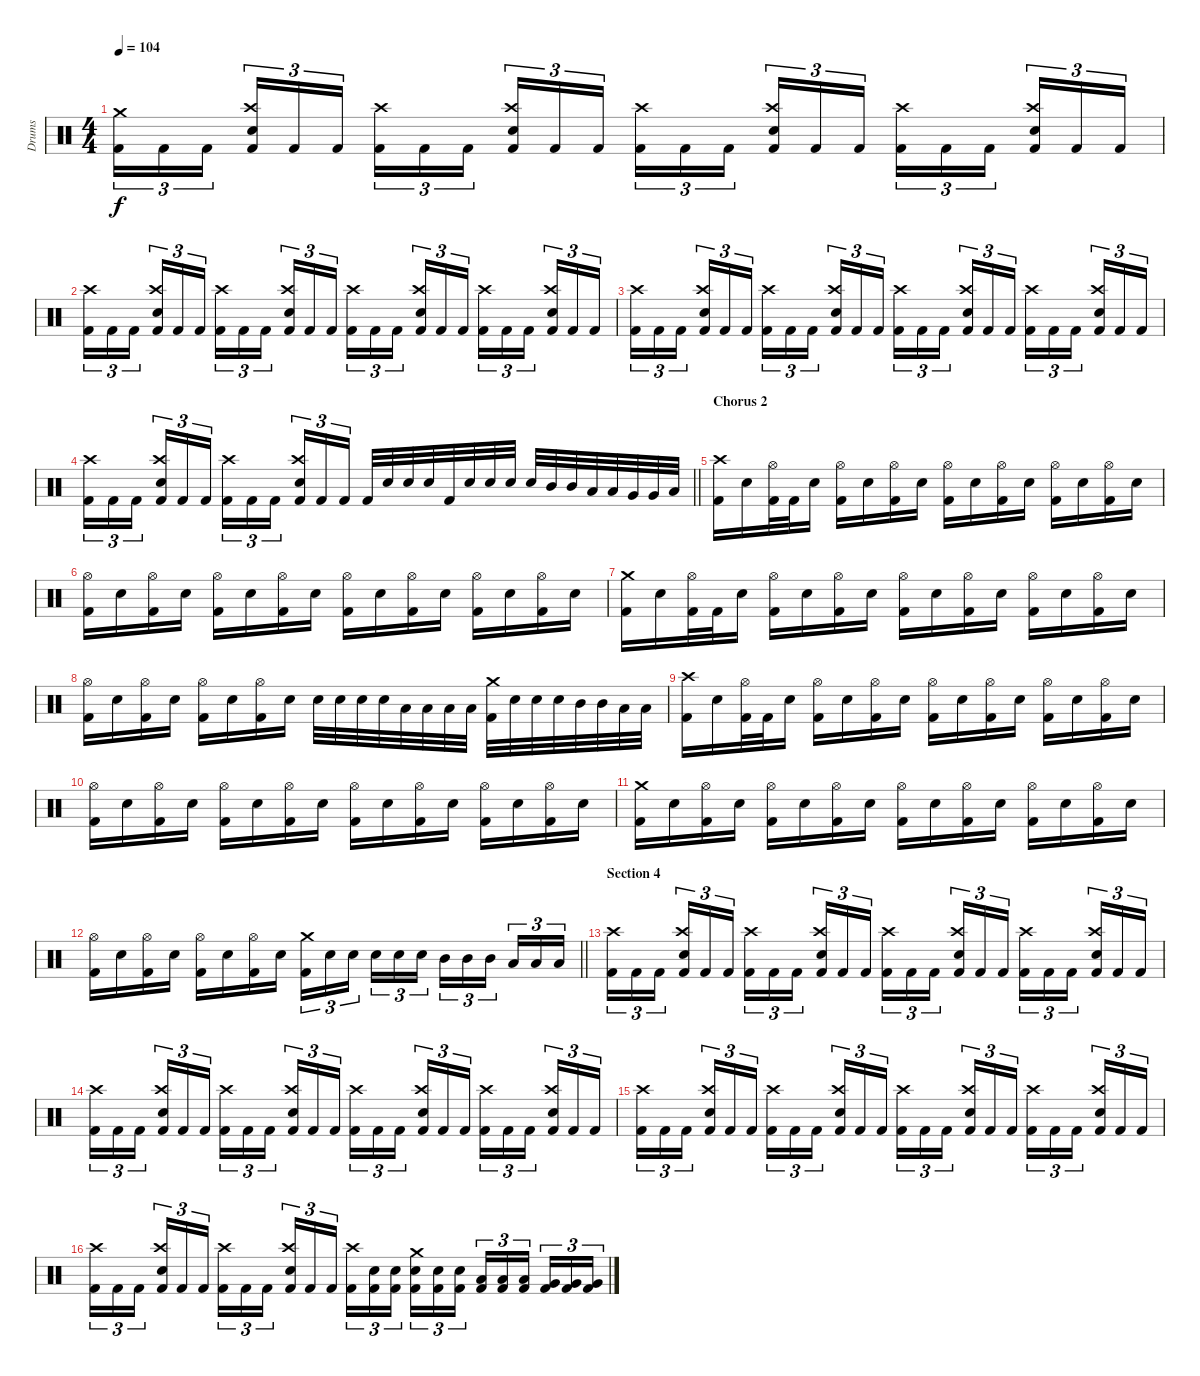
\track ("Drums" "Drums") {instrument percussion}
\staff {score}
\articulation defaults
\ts (4 4)
\tempo 104
\clef neutral
\ks c
("Crash medium (hit)" "Kick (hit) 2").16{tu (3 2) dy f} "Kick (hit) 2".16{tu (3 2)} "Kick (hit) 2".16{tu (3 2) beam splitsecondary} ("Crash high (hit)" "Electric Snare (hit)" "Kick (hit) 2").16{tu (3 2)} "Kick (hit) 2".16{tu (3 2)} "Kick (hit) 2".16{tu (3 2)} ("Crash high (hit)" "Kick (hit) 2").16{tu (3 2)} "Kick (hit) 2".16{tu (3 2)} "Kick (hit) 2".16{tu (3 2) beam splitsecondary} ("Crash high (hit)" "Electric Snare (hit)" "Kick (hit) 2").16{tu (3 2)} "Kick (hit) 2".16{tu (3 2)} "Kick (hit) 2".16{tu (3 2)} ("Crash high (hit)" "Kick (hit) 2").16{tu (3 2)} "Kick (hit) 2".16{tu (3 2)} "Kick (hit) 2".16{tu (3 2) beam splitsecondary} ("Crash high (hit)" "Electric Snare (hit)" "Kick (hit) 2").16{tu (3 2)} "Kick (hit) 2".16{tu (3 2)} "Kick (hit) 2".16{tu (3 2)} ("Crash high (hit)" "Kick (hit) 2").16{tu (3 2)} "Kick (hit) 2".16{tu (3 2)} "Kick (hit) 2".16{tu (3 2) beam splitsecondary} ("Crash high (hit)" "Electric Snare (hit)" "Kick (hit) 2").16{tu (3 2)} "Kick (hit) 2".16{tu (3 2)} "Kick (hit) 2".16{tu (3 2)} |
("Crash high (hit)" "Kick (hit) 2").16{tu (3 2)} "Kick (hit) 2".16{tu (3 2)} "Kick (hit) 2".16{tu (3 2) beam splitsecondary} ("Crash high (hit)" "Electric Snare (hit)" "Kick (hit) 2").16{tu (3 2)} "Kick (hit) 2".16{tu (3 2)} "Kick (hit) 2".16{tu (3 2)} ("Crash high (hit)" "Kick (hit) 2").16{tu (3 2)} "Kick (hit) 2".16{tu (3 2)} "Kick (hit) 2".16{tu (3 2) beam splitsecondary} ("Crash high (hit)" "Electric Snare (hit)" "Kick (hit) 2").16{tu (3 2)} "Kick (hit) 2".16{tu (3 2)} "Kick (hit) 2".16{tu (3 2)} ("Crash high (hit)" "Kick (hit) 2").16{tu (3 2)} "Kick (hit) 2".16{tu (3 2)} "Kick (hit) 2".16{tu (3 2) beam splitsecondary} ("Crash high (hit)" "Electric Snare (hit)" "Kick (hit) 2").16{tu (3 2)} "Kick (hit) 2".16{tu (3 2)} "Kick (hit) 2".16{tu (3 2)} ("Crash high (hit)" "Kick (hit) 2").16{tu (3 2)} "Kick (hit) 2".16{tu (3 2)} "Kick (hit) 2".16{tu (3 2) beam splitsecondary} ("Crash high (hit)" "Electric Snare (hit)" "Kick (hit) 2").16{tu (3 2)} "Kick (hit) 2".16{tu (3 2)} "Kick (hit) 2".16{tu (3 2)} |
("Crash high (hit)" "Kick (hit) 2").16{tu (3 2)} "Kick (hit) 2".16{tu (3 2)} "Kick (hit) 2".16{tu (3 2) beam splitsecondary} ("Crash high (hit)" "Electric Snare (hit)" "Kick (hit) 2").16{tu (3 2)} "Kick (hit) 2".16{tu (3 2)} "Kick (hit) 2".16{tu (3 2)} ("Crash high (hit)" "Kick (hit) 2").16{tu (3 2)} "Kick (hit) 2".16{tu (3 2)} "Kick (hit) 2".16{tu (3 2) beam splitsecondary} ("Crash high (hit)" "Electric Snare (hit)" "Kick (hit) 2").16{tu (3 2)} "Kick (hit) 2".16{tu (3 2)} "Kick (hit) 2".16{tu (3 2)} ("Crash high (hit)" "Kick (hit) 2").16{tu (3 2)} "Kick (hit) 2".16{tu (3 2)} "Kick (hit) 2".16{tu (3 2) beam splitsecondary} ("Crash high (hit)" "Electric Snare (hit)" "Kick (hit) 2").16{tu (3 2)} "Kick (hit) 2".16{tu (3 2)} "Kick (hit) 2".16{tu (3 2)} ("Crash high (hit)" "Kick (hit) 2").16{tu (3 2)} "Kick (hit) 2".16{tu (3 2)} "Kick (hit) 2".16{tu (3 2) beam splitsecondary} ("Crash high (hit)" "Electric Snare (hit)" "Kick (hit) 2").16{tu (3 2)} "Kick (hit) 2".16{tu (3 2)} "Kick (hit) 2".16{tu (3 2)} |
\barLineRight lightlight
("Crash high (hit)" "Kick (hit) 2").16{tu (3 2)} "Kick (hit) 2".16{tu (3 2)} "Kick (hit) 2".16{tu (3 2) beam splitsecondary} ("Crash high (hit)" "Electric Snare (hit)" "Kick (hit) 2").16{tu (3 2)} "Kick (hit) 2".16{tu (3 2)} "Kick (hit) 2".16{tu (3 2)} ("Crash high (hit)" "Kick (hit) 2").16{tu (3 2)} "Kick (hit) 2".16{tu (3 2)} "Kick (hit) 2".16{tu (3 2) beam splitsecondary} ("Crash high (hit)" "Electric Snare (hit)" "Kick (hit) 2").16{tu (3 2)} "Kick (hit) 2".16{tu (3 2)} "Kick (hit) 2".16{tu (3 2)} "Kick (hit) 2".32 "Electric Snare (hit)".32 "Electric Snare (hit)".32 "Electric Snare (hit)".32 "Kick (hit) 2".32 "Electric Snare (hit)".32 "Electric Snare (hit)".32 "Electric Snare (hit)".32 "Electric Snare (hit)".32 "Mid Tom (hit)".32 "Mid Tom (hit)".32 "Low Tom (hit)".32 "Low Tom (hit)".32 "Very Low Tom (hit)".32 "Very Low Tom (hit)".32 "Low Floor Tom (hit)".32 |
\section ("" "Chorus 2")
("Crash high (hit)" "Kick (hit) 2").16 "Electric Snare (hit)".16 ("Hi-Hat (open)" "Kick (hit) 2").32 "Kick (hit) 2".32 "Electric Snare (hit)".16 ("Hi-Hat (open)" "Kick (hit) 2").16 "Electric Snare (hit)".16 ("Hi-Hat (open)" "Kick (hit) 2").16 "Electric Snare (hit)".16 ("Hi-Hat (open)" "Kick (hit) 2").16 "Electric Snare (hit)".16 ("Hi-Hat (open)" "Kick (hit) 2").16 "Electric Snare (hit)".16 ("Hi-Hat (open)" "Kick (hit) 2").16 "Electric Snare (hit)".16 ("Hi-Hat (open)" "Kick (hit) 2").16 "Electric Snare (hit)".16 |
("Hi-Hat (open)" "Kick (hit) 2").16 "Electric Snare (hit)".16 ("Hi-Hat (open)" "Kick (hit) 2").16 "Electric Snare (hit)".16 ("Hi-Hat (open)" "Kick (hit) 2").16 "Electric Snare (hit)".16 ("Hi-Hat (open)" "Kick (hit) 2").16 "Electric Snare (hit)".16 ("Hi-Hat (open)" "Kick (hit) 2").16 "Electric Snare (hit)".16 ("Hi-Hat (open)" "Kick (hit) 2").16 "Electric Snare (hit)".16 ("Hi-Hat (open)" "Kick (hit) 2").16 "Electric Snare (hit)".16 ("Hi-Hat (open)" "Kick (hit) 2").16 "Electric Snare (hit)".16 |
("Crash medium (hit)" "Kick (hit) 2").16 "Electric Snare (hit)".16 ("Hi-Hat (open)" "Kick (hit) 2").32 "Kick (hit) 2".32 "Electric Snare (hit)".16 ("Hi-Hat (open)" "Kick (hit) 2").16 "Electric Snare (hit)".16 ("Hi-Hat (open)" "Kick (hit) 2").16 "Electric Snare (hit)".16 ("Hi-Hat (open)" "Kick (hit) 2").16 "Electric Snare (hit)".16 ("Hi-Hat (open)" "Kick (hit) 2").16 "Electric Snare (hit)".16 ("Hi-Hat (open)" "Kick (hit) 2").16 "Electric Snare (hit)".16 ("Hi-Hat (open)" "Kick (hit) 2").16 "Electric Snare (hit)".16 |
("Hi-Hat (open)" "Kick (hit) 2").16 "Electric Snare (hit)".16 ("Hi-Hat (open)" "Kick (hit) 2").16 "Electric Snare (hit)".16 ("Hi-Hat (open)" "Kick (hit) 2").16 "Electric Snare (hit)".16 ("Hi-Hat (open)" "Kick (hit) 2").16 "Electric Snare (hit)".16 "Electric Snare (hit)".32 "Electric Snare (hit)".32 "Electric Snare (hit)".32 "Electric Snare (hit)".32 "Low Tom (hit)".32 "Low Tom (hit)".32 "Low Tom (hit)".32 "Low Tom (hit)".32 ("Crash medium (hit)" "Kick (hit) 2").32 "Electric Snare (hit)".32 "Electric Snare (hit)".32 "Electric Snare (hit)".32 "Mid Tom (hit)".32 "Mid Tom (hit)".32 "Low Tom (hit)".32 "Low Tom (hit)".32 |
("Crash high (hit)" "Kick (hit) 2").16 "Electric Snare (hit)".16 ("Hi-Hat (open)" "Kick (hit) 2").32 "Kick (hit) 2".32 "Electric Snare (hit)".16 ("Hi-Hat (open)" "Kick (hit) 2").16 "Electric Snare (hit)".16 ("Hi-Hat (open)" "Kick (hit) 2").16 "Electric Snare (hit)".16 ("Hi-Hat (open)" "Kick (hit) 2").16 "Electric Snare (hit)".16 ("Hi-Hat (open)" "Kick (hit) 2").16 "Electric Snare (hit)".16 ("Hi-Hat (open)" "Kick (hit) 2").16 "Electric Snare (hit)".16 ("Hi-Hat (open)" "Kick (hit) 2").16 "Electric Snare (hit)".16 |
("Hi-Hat (open)" "Kick (hit) 2").16 "Electric Snare (hit)".16 ("Hi-Hat (open)" "Kick (hit) 2").16 "Electric Snare (hit)".16 ("Hi-Hat (open)" "Kick (hit) 2").16 "Electric Snare (hit)".16 ("Hi-Hat (open)" "Kick (hit) 2").16 "Electric Snare (hit)".16 ("Hi-Hat (open)" "Kick (hit) 2").16 "Electric Snare (hit)".16 ("Hi-Hat (open)" "Kick (hit) 2").16 "Electric Snare (hit)".16 ("Hi-Hat (open)" "Kick (hit) 2").16 "Electric Snare (hit)".16 ("Hi-Hat (open)" "Kick (hit) 2").16 "Electric Snare (hit)".16 |
("Crash medium (hit)" "Kick (hit) 2").16 "Electric Snare (hit)".16 ("Hi-Hat (open)" "Kick (hit) 2").16 "Electric Snare (hit)".16 ("Hi-Hat (open)" "Kick (hit) 2").16 "Electric Snare (hit)".16 ("Hi-Hat (open)" "Kick (hit) 2").16 "Electric Snare (hit)".16 ("Hi-Hat (open)" "Kick (hit) 2").16 "Electric Snare (hit)".16 ("Hi-Hat (open)" "Kick (hit) 2").16 "Electric Snare (hit)".16 ("Hi-Hat (open)" "Kick (hit) 2").16 "Electric Snare (hit)".16 ("Hi-Hat (open)" "Kick (hit) 2").16 "Electric Snare (hit)".16 |
\barLineRight lightlight
("Hi-Hat (open)" "Kick (hit) 2").16 "Electric Snare (hit)".16 ("Hi-Hat (open)" "Kick (hit) 2").16 "Electric Snare (hit)".16 ("Hi-Hat (open)" "Kick (hit) 2").16 "Electric Snare (hit)".16 ("Hi-Hat (open)" "Kick (hit) 2").16 "Electric Snare (hit)".16 ("Crash medium (hit)" "Kick (hit) 2").16{tu (3 2)} "Electric Snare (hit)".16{tu (3 2)} "Electric Snare (hit)".16{tu (3 2) beam splitsecondary} "Electric Snare (hit)".16{tu (3 2)} "Electric Snare (hit)".16{tu (3 2)} "Electric Snare (hit)".16{tu (3 2)} "Mid Tom (hit)".16{tu (3 2)} "Mid Tom (hit)".16{tu (3 2)} "Mid Tom (hit)".16{tu (3 2) beam splitsecondary} "Low Tom (hit)".16{tu (3 2)} "Low Tom (hit)".16{tu (3 2)} "Low Tom (hit)".16{tu (3 2)} |
\section ("" "Section 4")
("Crash high (hit)" "Kick (hit) 2").16{tu (3 2)} "Kick (hit) 2".16{tu (3 2)} "Kick (hit) 2".16{tu (3 2) beam splitsecondary} ("Crash high (hit)" "Electric Snare (hit)" "Kick (hit) 2").16{tu (3 2)} "Kick (hit) 2".16{tu (3 2)} "Kick (hit) 2".16{tu (3 2)} ("Crash high (hit)" "Kick (hit) 2").16{tu (3 2)} "Kick (hit) 2".16{tu (3 2)} "Kick (hit) 2".16{tu (3 2) beam splitsecondary} ("Crash high (hit)" "Electric Snare (hit)" "Kick (hit) 2").16{tu (3 2)} "Kick (hit) 2".16{tu (3 2)} "Kick (hit) 2".16{tu (3 2)} ("Crash high (hit)" "Kick (hit) 2").16{tu (3 2)} "Kick (hit) 2".16{tu (3 2)} "Kick (hit) 2".16{tu (3 2) beam splitsecondary} ("Crash high (hit)" "Electric Snare (hit)" "Kick (hit) 2").16{tu (3 2)} "Kick (hit) 2".16{tu (3 2)} "Kick (hit) 2".16{tu (3 2)} ("Crash high (hit)" "Kick (hit) 2").16{tu (3 2)} "Kick (hit) 2".16{tu (3 2)} "Kick (hit) 2".16{tu (3 2) beam splitsecondary} ("Crash high (hit)" "Electric Snare (hit)" "Kick (hit) 2").16{tu (3 2)} "Kick (hit) 2".16{tu (3 2)} "Kick (hit) 2".16{tu (3 2)} |
("Crash high (hit)" "Kick (hit) 2").16{tu (3 2)} "Kick (hit) 2".16{tu (3 2)} "Kick (hit) 2".16{tu (3 2) beam splitsecondary} ("Crash high (hit)" "Electric Snare (hit)" "Kick (hit) 2").16{tu (3 2)} "Kick (hit) 2".16{tu (3 2)} "Kick (hit) 2".16{tu (3 2)} ("Crash high (hit)" "Kick (hit) 2").16{tu (3 2)} "Kick (hit) 2".16{tu (3 2)} "Kick (hit) 2".16{tu (3 2) beam splitsecondary} ("Crash high (hit)" "Electric Snare (hit)" "Kick (hit) 2").16{tu (3 2)} "Kick (hit) 2".16{tu (3 2)} "Kick (hit) 2".16{tu (3 2)} ("Crash high (hit)" "Kick (hit) 2").16{tu (3 2)} "Kick (hit) 2".16{tu (3 2)} "Kick (hit) 2".16{tu (3 2) beam splitsecondary} ("Crash high (hit)" "Electric Snare (hit)" "Kick (hit) 2").16{tu (3 2)} "Kick (hit) 2".16{tu (3 2)} "Kick (hit) 2".16{tu (3 2)} ("Crash high (hit)" "Kick (hit) 2").16{tu (3 2)} "Kick (hit) 2".16{tu (3 2)} "Kick (hit) 2".16{tu (3 2) beam splitsecondary} ("Crash high (hit)" "Electric Snare (hit)" "Kick (hit) 2").16{tu (3 2)} "Kick (hit) 2".16{tu (3 2)} "Kick (hit) 2".16{tu (3 2)} |
("Crash high (hit)" "Kick (hit) 2").16{tu (3 2)} "Kick (hit) 2".16{tu (3 2)} "Kick (hit) 2".16{tu (3 2) beam splitsecondary} ("Crash high (hit)" "Electric Snare (hit)" "Kick (hit) 2").16{tu (3 2)} "Kick (hit) 2".16{tu (3 2)} "Kick (hit) 2".16{tu (3 2)} ("Crash high (hit)" "Kick (hit) 2").16{tu (3 2)} "Kick (hit) 2".16{tu (3 2)} "Kick (hit) 2".16{tu (3 2) beam splitsecondary} ("Crash high (hit)" "Electric Snare (hit)" "Kick (hit) 2").16{tu (3 2)} "Kick (hit) 2".16{tu (3 2)} "Kick (hit) 2".16{tu (3 2)} ("Crash high (hit)" "Kick (hit) 2").16{tu (3 2)} "Kick (hit) 2".16{tu (3 2)} "Kick (hit) 2".16{tu (3 2) beam splitsecondary} ("Crash high (hit)" "Electric Snare (hit)" "Kick (hit) 2").16{tu (3 2)} "Kick (hit) 2".16{tu (3 2)} "Kick (hit) 2".16{tu (3 2)} ("Crash high (hit)" "Kick (hit) 2").16{tu (3 2)} "Kick (hit) 2".16{tu (3 2)} "Kick (hit) 2".16{tu (3 2) beam splitsecondary} ("Crash high (hit)" "Electric Snare (hit)" "Kick (hit) 2").16{tu (3 2)} "Kick (hit) 2".16{tu (3 2)} "Kick (hit) 2".16{tu (3 2)} |
("Crash high (hit)" "Kick (hit) 2").16{tu (3 2)} "Kick (hit) 2".16{tu (3 2)} "Kick (hit) 2".16{tu (3 2) beam splitsecondary} ("Crash high (hit)" "Electric Snare (hit)" "Kick (hit) 2").16{tu (3 2)} "Kick (hit) 2".16{tu (3 2)} "Kick (hit) 2".16{tu (3 2)} ("Crash high (hit)" "Kick (hit) 2").16{tu (3 2)} "Kick (hit) 2".16{tu (3 2)} "Kick (hit) 2".16{tu (3 2) beam splitsecondary} ("Crash high (hit)" "Electric Snare (hit)" "Kick (hit) 2").16{tu (3 2)} "Kick (hit) 2".16{tu (3 2)} "Kick (hit) 2".16{tu (3 2)} ("Crash high (hit)" "Kick (hit) 2").16{tu (3 2)} ("Electric Snare (hit)" "Kick (hit) 2").16{tu (3 2)} ("Electric Snare (hit)" "Kick (hit) 2").16{tu (3 2) beam splitsecondary} ("Crash medium (hit)" "Electric Snare (hit)" "Kick (hit) 2").16{tu (3 2)} ("Electric Snare (hit)" "Kick (hit) 2").16{tu (3 2)} ("Electric Snare (hit)" "Kick (hit) 2").16{tu (3 2)} ("Low Tom (hit)" "Kick (hit) 2").16{tu (3 2)} ("Low Tom (hit)" "Kick (hit) 2").16{tu (3 2)} ("Low Tom (hit)" "Kick (hit) 2").16{tu (3 2) beam splitsecondary} ("Very Low Tom (hit)" "Kick (hit) 2").16{tu (3 2)} ("Very Low Tom (hit)" "Kick (hit) 2").16{tu (3 2)} ("Very Low Tom (hit)" "Kick (hit) 2").16{tu (3 2)}
